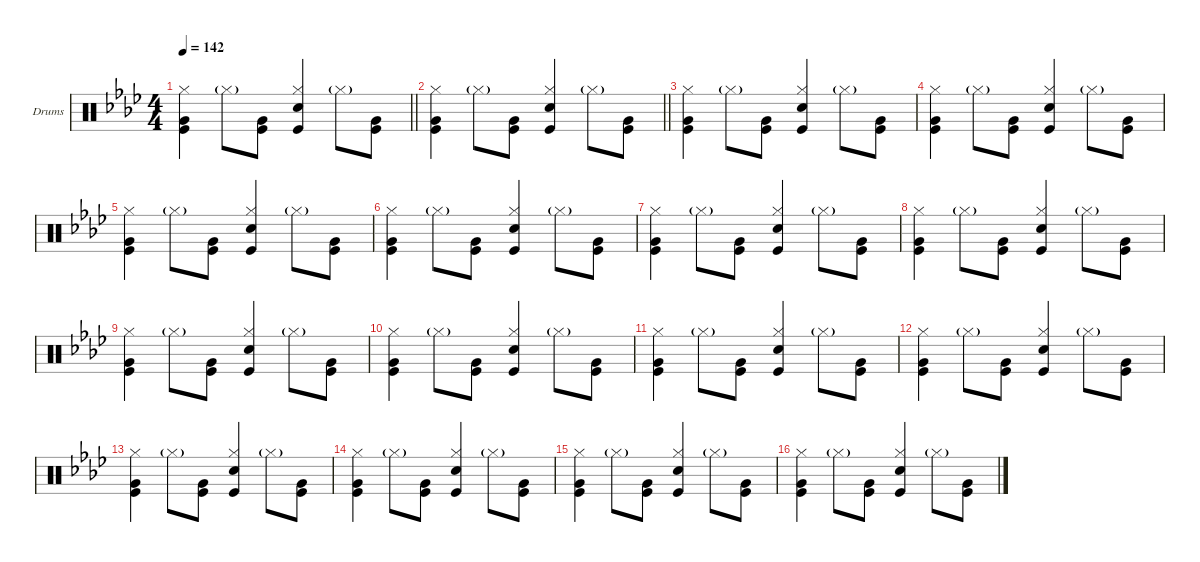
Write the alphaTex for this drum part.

\defaultSystemsLayout 4
\hideDynamics
\bracketExtendMode groupsimilarinstruments
\firstSystemTrackNameOrientation horizontal
\otherSystemsTrackNameOrientation horizontal
\track ("Drumkit" "Drums") {multiBarRest instrument percussion}
\staff {score}
\articulation defaults
\ts (4 4)
\tempo 142
\clef neutral
\barLineRight lightlight
\ks ab
("Very Low Tom (hit)" "Kick (hit)" "Hi-Hat (closed)").4{dy fff} "Hi-Hat (closed)"{g}.8 ("Very Low Tom (hit)" "Kick (hit)").8 ("Snare (hit) 2" "Kick (hit)" "Hi-Hat (closed)").4 "Hi-Hat (closed)"{g}.8 ("Very Low Tom (hit)" "Kick (hit)").8 |
\barLineRight lightlight
("Very Low Tom (hit)" "Kick (hit)" "Hi-Hat (closed)").4 "Hi-Hat (closed)"{g}.8 ("Very Low Tom (hit)" "Kick (hit)").8 ("Snare (hit) 2" "Kick (hit)" "Hi-Hat (closed)").4 "Hi-Hat (closed)"{g}.8 ("Very Low Tom (hit)" "Kick (hit)").8 |
("Very Low Tom (hit)" "Kick (hit)" "Hi-Hat (closed)").4 "Hi-Hat (closed)"{g}.8 ("Very Low Tom (hit)" "Kick (hit)").8 ("Snare (hit) 2" "Kick (hit)" "Hi-Hat (closed)").4 "Hi-Hat (closed)"{g}.8 ("Very Low Tom (hit)" "Kick (hit)").8 |
("Very Low Tom (hit)" "Kick (hit)" "Hi-Hat (closed)").4 "Hi-Hat (closed)"{g}.8 ("Very Low Tom (hit)" "Kick (hit)").8 ("Snare (hit) 2" "Kick (hit)" "Hi-Hat (closed)").4 "Hi-Hat (closed)"{g}.8 ("Very Low Tom (hit)" "Kick (hit)").8 |
("Very Low Tom (hit)" "Kick (hit)" "Hi-Hat (closed)").4 "Hi-Hat (closed)"{g}.8 ("Very Low Tom (hit)" "Kick (hit)").8 ("Snare (hit) 2" "Kick (hit)" "Hi-Hat (closed)").4 "Hi-Hat (closed)"{g}.8 ("Very Low Tom (hit)" "Kick (hit)").8 |
("Very Low Tom (hit)" "Kick (hit)" "Hi-Hat (closed)").4 "Hi-Hat (closed)"{g}.8 ("Very Low Tom (hit)" "Kick (hit)").8 ("Snare (hit) 2" "Kick (hit)" "Hi-Hat (closed)").4 "Hi-Hat (closed)"{g}.8 ("Very Low Tom (hit)" "Kick (hit)").8 |
("Very Low Tom (hit)" "Kick (hit)" "Hi-Hat (closed)").4 "Hi-Hat (closed)"{g}.8 ("Very Low Tom (hit)" "Kick (hit)").8 ("Snare (hit) 2" "Kick (hit)" "Hi-Hat (closed)").4 "Hi-Hat (closed)"{g}.8 ("Very Low Tom (hit)" "Kick (hit)").8 |
("Very Low Tom (hit)" "Kick (hit)" "Hi-Hat (closed)").4 "Hi-Hat (closed)"{g}.8 ("Very Low Tom (hit)" "Kick (hit)").8 ("Snare (hit) 2" "Kick (hit)" "Hi-Hat (closed)").4 "Hi-Hat (closed)"{g}.8 ("Very Low Tom (hit)" "Kick (hit)").8 |
("Very Low Tom (hit)" "Kick (hit)" "Hi-Hat (closed)").4 "Hi-Hat (closed)"{g}.8 ("Very Low Tom (hit)" "Kick (hit)").8 ("Snare (hit) 2" "Kick (hit)" "Hi-Hat (closed)").4 "Hi-Hat (closed)"{g}.8 ("Very Low Tom (hit)" "Kick (hit)").8 |
("Very Low Tom (hit)" "Kick (hit)" "Hi-Hat (closed)").4 "Hi-Hat (closed)"{g}.8 ("Very Low Tom (hit)" "Kick (hit)").8 ("Snare (hit) 2" "Kick (hit)" "Hi-Hat (closed)").4 "Hi-Hat (closed)"{g}.8 ("Very Low Tom (hit)" "Kick (hit)").8 |
("Very Low Tom (hit)" "Kick (hit)" "Hi-Hat (closed)").4 "Hi-Hat (closed)"{g}.8 ("Very Low Tom (hit)" "Kick (hit)").8 ("Snare (hit) 2" "Kick (hit)" "Hi-Hat (closed)").4 "Hi-Hat (closed)"{g}.8 ("Very Low Tom (hit)" "Kick (hit)").8 |
("Very Low Tom (hit)" "Kick (hit)" "Hi-Hat (closed)").4 "Hi-Hat (closed)"{g}.8 ("Very Low Tom (hit)" "Kick (hit)").8 ("Snare (hit) 2" "Kick (hit)" "Hi-Hat (closed)").4 "Hi-Hat (closed)"{g}.8 ("Very Low Tom (hit)" "Kick (hit)").8 |
("Very Low Tom (hit)" "Kick (hit)" "Hi-Hat (closed)").4 "Hi-Hat (closed)"{g}.8 ("Very Low Tom (hit)" "Kick (hit)").8 ("Snare (hit) 2" "Kick (hit)" "Hi-Hat (closed)").4 "Hi-Hat (closed)"{g}.8 ("Very Low Tom (hit)" "Kick (hit)").8 |
("Very Low Tom (hit)" "Kick (hit)" "Hi-Hat (closed)").4 "Hi-Hat (closed)"{g}.8 ("Very Low Tom (hit)" "Kick (hit)").8 ("Snare (hit) 2" "Kick (hit)" "Hi-Hat (closed)").4 "Hi-Hat (closed)"{g}.8 ("Very Low Tom (hit)" "Kick (hit)").8 |
("Very Low Tom (hit)" "Kick (hit)" "Hi-Hat (closed)").4 "Hi-Hat (closed)"{g}.8 ("Very Low Tom (hit)" "Kick (hit)").8 ("Snare (hit) 2" "Kick (hit)" "Hi-Hat (closed)").4 "Hi-Hat (closed)"{g}.8 ("Very Low Tom (hit)" "Kick (hit)").8 |
("Very Low Tom (hit)" "Kick (hit)" "Hi-Hat (closed)").4 "Hi-Hat (closed)"{g}.8 ("Very Low Tom (hit)" "Kick (hit)").8 ("Snare (hit) 2" "Kick (hit)" "Hi-Hat (closed)").4 "Hi-Hat (closed)"{g}.8 ("Very Low Tom (hit)" "Kick (hit)").8
